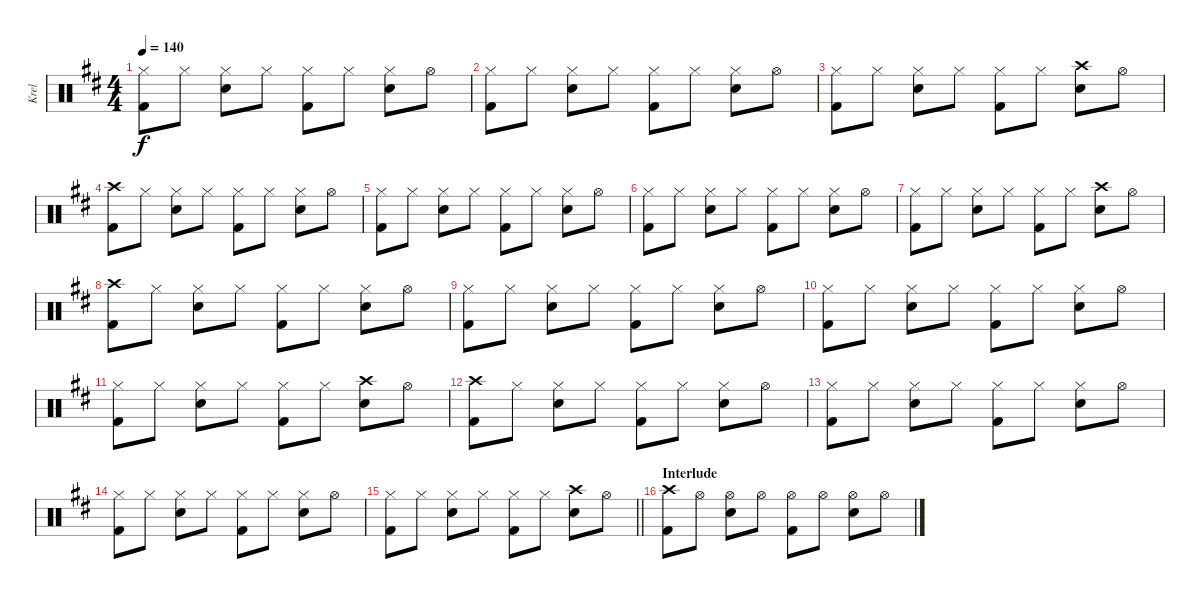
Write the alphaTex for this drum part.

\track ("Krel" "Krel") {instrument percussion}
\staff {score}
\articulation defaults
\ts (4 4)
\tempo 140
\clef neutral
\ks d
("Hi-Hat (closed)" "Kick (hit) 2").8{dy f} "Hi-Hat (closed)".8 ("Hi-Hat (closed)" "Snare (hit) 2").8 "Hi-Hat (closed)".8 ("Hi-Hat (closed)" "Kick (hit) 2").8 "Hi-Hat (closed)".8 ("Hi-Hat (closed)" "Snare (hit) 2").8 "Hi-Hat (open)".8 |
("Hi-Hat (closed)" "Kick (hit) 2").8 "Hi-Hat (closed)".8 ("Hi-Hat (closed)" "Snare (hit) 2").8 "Hi-Hat (closed)".8 ("Hi-Hat (closed)" "Kick (hit) 2").8 "Hi-Hat (closed)".8 ("Hi-Hat (closed)" "Snare (hit) 2").8 "Hi-Hat (open)".8 |
("Hi-Hat (closed)" "Kick (hit) 2").8 "Hi-Hat (closed)".8 ("Hi-Hat (closed)" "Snare (hit) 2").8 "Hi-Hat (closed)".8 ("Hi-Hat (closed)" "Kick (hit) 2").8 "Hi-Hat (closed)".8 ("Crash high (hit)" "Snare (hit) 2").8 "Hi-Hat (open)".8 |
("Crash high (hit)" "Kick (hit) 2").8 "Hi-Hat (closed)".8 ("Hi-Hat (closed)" "Snare (hit) 2").8 "Hi-Hat (closed)".8 ("Hi-Hat (closed)" "Kick (hit) 2").8 "Hi-Hat (closed)".8 ("Hi-Hat (closed)" "Snare (hit) 2").8 "Hi-Hat (open)".8 |
("Hi-Hat (closed)" "Kick (hit) 2").8 "Hi-Hat (closed)".8 ("Hi-Hat (closed)" "Snare (hit) 2").8 "Hi-Hat (closed)".8 ("Hi-Hat (closed)" "Kick (hit) 2").8 "Hi-Hat (closed)".8 ("Hi-Hat (closed)" "Snare (hit) 2").8 "Hi-Hat (open)".8 |
("Hi-Hat (closed)" "Kick (hit) 2").8 "Hi-Hat (closed)".8 ("Hi-Hat (closed)" "Snare (hit) 2").8 "Hi-Hat (closed)".8 ("Hi-Hat (closed)" "Kick (hit) 2").8 "Hi-Hat (closed)".8 ("Hi-Hat (closed)" "Snare (hit) 2").8 "Hi-Hat (open)".8 |
("Hi-Hat (closed)" "Kick (hit) 2").8 "Hi-Hat (closed)".8 ("Hi-Hat (closed)" "Snare (hit) 2").8 "Hi-Hat (closed)".8 ("Hi-Hat (closed)" "Kick (hit) 2").8 "Hi-Hat (closed)".8 ("Crash high (hit)" "Snare (hit) 2").8 "Hi-Hat (open)".8 |
("Crash high (hit)" "Kick (hit) 2").8 "Hi-Hat (closed)".8 ("Hi-Hat (closed)" "Snare (hit) 2").8 "Hi-Hat (closed)".8 ("Hi-Hat (closed)" "Kick (hit) 2").8 "Hi-Hat (closed)".8 ("Hi-Hat (closed)" "Snare (hit) 2").8 "Hi-Hat (open)".8 |
("Hi-Hat (closed)" "Kick (hit) 2").8 "Hi-Hat (closed)".8 ("Hi-Hat (closed)" "Snare (hit) 2").8 "Hi-Hat (closed)".8 ("Hi-Hat (closed)" "Kick (hit) 2").8 "Hi-Hat (closed)".8 ("Hi-Hat (closed)" "Snare (hit) 2").8 "Hi-Hat (open)".8 |
("Hi-Hat (closed)" "Kick (hit) 2").8 "Hi-Hat (closed)".8 ("Hi-Hat (closed)" "Snare (hit) 2").8 "Hi-Hat (closed)".8 ("Hi-Hat (closed)" "Kick (hit) 2").8 "Hi-Hat (closed)".8 ("Hi-Hat (closed)" "Snare (hit) 2").8 "Hi-Hat (open)".8 |
("Hi-Hat (closed)" "Kick (hit) 2").8 "Hi-Hat (closed)".8 ("Hi-Hat (closed)" "Snare (hit) 2").8 "Hi-Hat (closed)".8 ("Hi-Hat (closed)" "Kick (hit) 2").8 "Hi-Hat (closed)".8 ("Crash high (hit)" "Snare (hit) 2").8 "Hi-Hat (open)".8 |
("Crash high (hit)" "Kick (hit) 2").8 "Hi-Hat (closed)".8 ("Hi-Hat (closed)" "Snare (hit) 2").8 "Hi-Hat (closed)".8 ("Hi-Hat (closed)" "Kick (hit) 2").8 "Hi-Hat (closed)".8 ("Hi-Hat (closed)" "Snare (hit) 2").8 "Hi-Hat (open)".8 |
("Hi-Hat (closed)" "Kick (hit) 2").8 "Hi-Hat (closed)".8 ("Hi-Hat (closed)" "Snare (hit) 2").8 "Hi-Hat (closed)".8 ("Hi-Hat (closed)" "Kick (hit) 2").8 "Hi-Hat (closed)".8 ("Hi-Hat (closed)" "Snare (hit) 2").8 "Hi-Hat (open)".8 |
("Hi-Hat (closed)" "Kick (hit) 2").8 "Hi-Hat (closed)".8 ("Hi-Hat (closed)" "Snare (hit) 2").8 "Hi-Hat (closed)".8 ("Hi-Hat (closed)" "Kick (hit) 2").8 "Hi-Hat (closed)".8 ("Hi-Hat (closed)" "Snare (hit) 2").8 "Hi-Hat (open)".8 |
\barLineRight lightlight
("Hi-Hat (closed)" "Kick (hit) 2").8 "Hi-Hat (closed)".8 ("Hi-Hat (closed)" "Snare (hit) 2").8 "Hi-Hat (closed)".8 ("Hi-Hat (closed)" "Kick (hit) 2").8 "Hi-Hat (closed)".8 ("Crash high (hit)" "Snare (hit) 2").8 "Hi-Hat (open)".8 |
\section ("" "Interlude")
("Crash high (hit)" "Kick (hit) 2").8 "Hi-Hat (open)".8 ("Hi-Hat (open)" "Snare (hit) 2").8 "Hi-Hat (open)".8 ("Hi-Hat (open)" "Kick (hit) 2").8 "Hi-Hat (open)".8 ("Hi-Hat (open)" "Snare (hit) 2").8 "Hi-Hat (open)".8
